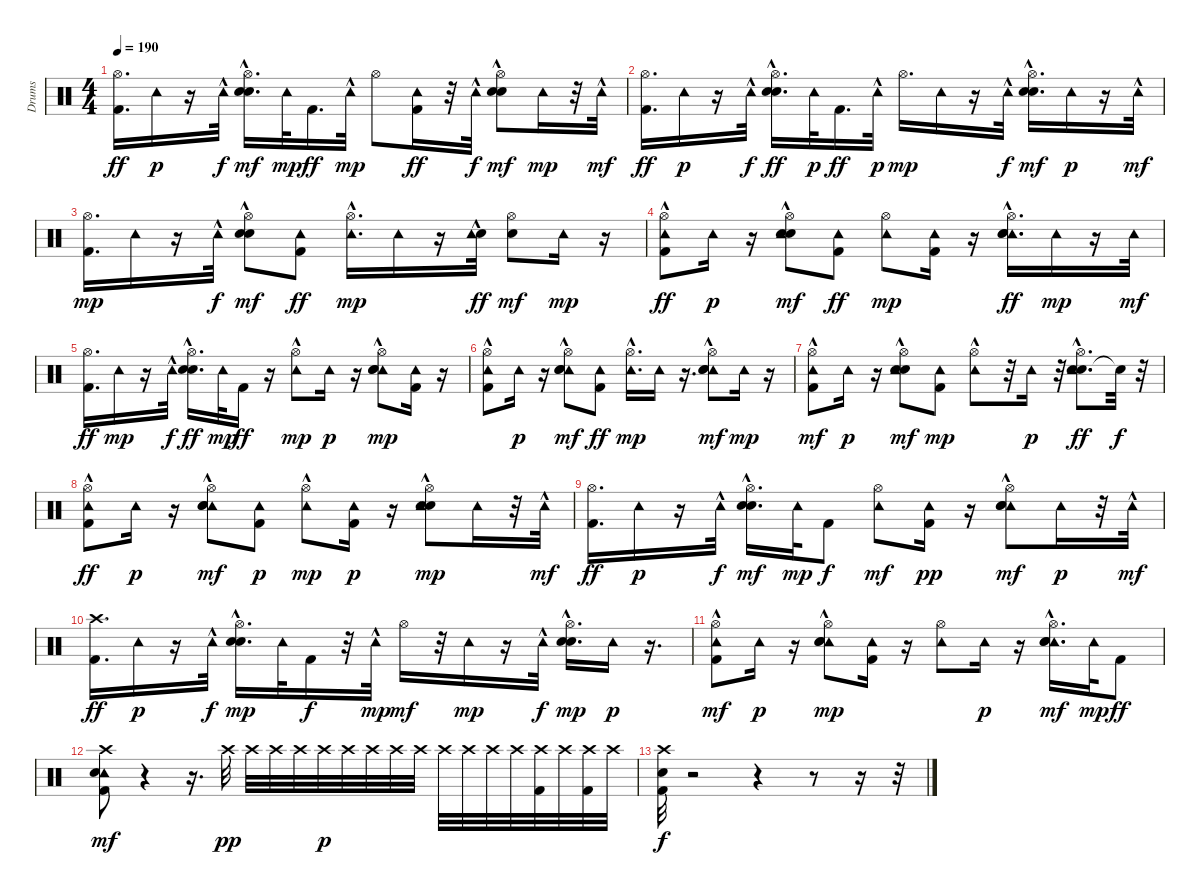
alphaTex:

\track ("Drums" "Drums") {instrument percussion}
\staff {score}
\articulation defaults
\ts (4 4)
\tempo 190
\clef neutral
\ks c
("Hi-Hat (open)" "Kick (hit) 2").16{d dy ff} "Tambourine (hit)".16{dy p} r.16 "Tambourine (hit)"{hac}.32{dy f} ("Hand Clap (hit)"{hac} "Snare (hit) 2" "Hi-Hat (open)").16{d dy mf} "Tambourine (hit)".32{dy mp} "Kick (hit) 2".16{d dy ff} "Tambourine (hit)"{hac}.32{dy mp} "Hi-Hat (open)".8 ("Tambourine (hit)" "Kick (hit) 2").16{dy ff} r.32 "Tambourine (hit)"{hac}.32{dy f} ("Hand Clap (hit)"{hac} "Snare (hit) 2" "Hi-Hat (open)").8{dy mf} "Tambourine (hit)".16{dy mp} r.32 "Tambourine (hit)"{hac}.32{dy mf} |
("Hi-Hat (open)" "Kick (hit) 2").16{d dy ff} "Tambourine (hit)".16{dy p} r.16 "Tambourine (hit)"{hac}.32{dy f} ("Hand Clap (hit)"{hac} "Hi-Hat (open)" "Snare (hit) 2").16{d dy ff} "Tambourine (hit)".32{dy p} "Kick (hit) 2".16{d dy ff} "Tambourine (hit)"{hac}.32{dy p} "Hi-Hat (open)".16{d dy mp} "Tambourine (hit)".16 r.16 "Tambourine (hit)"{hac}.32{dy f} ("Hand Clap (hit)"{hac} "Snare (hit) 2" "Hi-Hat (open)").16{d dy mf} "Tambourine (hit)".16{dy p} r.16 "Tambourine (hit)"{hac}.32{dy mf} |
("Kick (hit) 2" "Hi-Hat (open)").16{d dy mp} "Tambourine (hit)".16 r.16 "Tambourine (hit)"{hac}.32{dy f} ("Hand Clap (hit)"{hac} "Snare (hit) 2" "Hi-Hat (open)").8{dy mf} ("Tambourine (hit)" "Kick (hit) 2").8{dy ff} ("Tambourine (hit)"{hac} "Hi-Hat (open)").16{d dy mp} "Tambourine (hit)".16 r.16 ("Hand Clap (hit)"{hac} "Tambourine (hit)"{hac}).32{dy ff} ("Snare (hit) 2" "Hi-Hat (open)").8{dy mf} "Tambourine (hit)".16{dy mp} r.16 |
("Tambourine (hit)"{hac} "Hi-Hat (open)" "Kick (hit) 2").8{dy ff} "Tambourine (hit)".16{dy p} r.16 ("Hand Clap (hit)"{hac} "Hi-Hat (open)" "Tambourine (hit)"{hac} "Snare (hit) 2").8{dy mf} ("Tambourine (hit)" "Kick (hit) 2").8{dy ff} ("Tambourine (hit)" "Hi-Hat (open)").8{dy mp} ("Tambourine (hit)" "Kick (hit) 2").16 r.16 ("Tambourine (hit)"{hac} "Hand Clap (hit)"{hac} "Hi-Hat (open)" "Snare (hit) 2").16{d dy ff} "Tambourine (hit)".16{dy mp} r.16 "Tambourine (hit)".32{dy mf} |
("Hi-Hat (open)" "Kick (hit) 2").16{d dy ff} "Tambourine (hit)".16{dy mp} r.16 "Tambourine (hit)"{hac}.32{dy f} ("Hand Clap (hit)"{hac} "Hi-Hat (open)" "Snare (hit) 2").16{d dy ff} "Tambourine (hit)".32{dy mp} "Kick (hit) 2".16{dy ff} r.16 ("Tambourine (hit)"{hac} "Hi-Hat (open)").8{dy mp} "Tambourine (hit)".16{dy p} r.16 ("Tambourine (hit)"{hac} "Hand Clap (hit)"{hac} "Snare (hit) 2" "Hi-Hat (open)").8{dy mp} ("Kick (hit) 2" "Tambourine (hit)").16 r.16 |
("Tambourine (hit)"{hac} "Kick (hit) 2" "Hi-Hat (open)").8 "Tambourine (hit)".16{dy p} r.16 ("Tambourine (hit)"{hac} "Hand Clap (hit)"{hac} "Snare (hit) 2" "Hi-Hat (open)").8{dy mf} ("Tambourine (hit)" "Kick (hit) 2").8{dy ff} ("Tambourine (hit)"{hac} "Hi-Hat (open)").16{d dy mp} "Tambourine (hit)".16 r.16{d} ("Tambourine (hit)"{hac} "Hand Clap (hit)"{hac} "Snare (hit) 2" "Hi-Hat (open)").8{dy mf} "Tambourine (hit)".16{dy mp} r.16 |
("Tambourine (hit)"{hac} "Kick (hit) 2" "Hi-Hat (open)").8{dy mf} "Tambourine (hit)".16{dy p} r.16 ("Hand Clap (hit)"{hac} "Tambourine (hit)"{hac} "Snare (hit) 2" "Hi-Hat (open)").8{dy mf} ("Kick (hit) 2" "Tambourine (hit)").8{dy mp} ("Hi-Hat (open)" "Tambourine (hit)"{hac}).8 r.32 "Tambourine (hit)".16{dy p} r.32 ("Snare (hit) 2" "Hi-Hat (open)" "Hand Clap (hit)"{hac} "Tambourine (hit)"{hac}).8{d dy ff} "Snare (hit)"{t}.32{dy f} r.32 |
("Hi-Hat (open)" "Tambourine (hit)"{hac} "Kick (hit) 2").8{dy ff} "Tambourine (hit)".16{dy p} r.16 ("Tambourine (hit)"{hac} "Hand Clap (hit)"{hac} "Snare (hit) 2" "Hi-Hat (open)"{hac}).8{dy mf} ("Kick (hit) 2" "Tambourine (hit)").8{dy p} ("Tambourine (hit)"{hac} "Hi-Hat (open)").8{dy mp} ("Kick (hit) 2" "Tambourine (hit)").16{dy p} r.16 ("Hand Clap (hit)"{hac} "Snare (hit) 2" "Hi-Hat (open)" "Tambourine (hit)"{hac}).8{dy mp} "Tambourine (hit)".16 r.32 "Tambourine (hit)"{hac}.32{dy mf} |
("Hi-Hat (open)" "Kick (hit) 2").16{d dy ff} "Tambourine (hit)".16{dy p} r.16 "Tambourine (hit)"{hac}.32{dy f} ("Hand Clap (hit)"{hac} "Snare (hit) 2" "Hi-Hat (open)").16{d dy mf} "Tambourine (hit)".32{dy mp} "Kick (hit) 2".8{dy f} ("Tambourine (hit)" "Hi-Hat (open)").8{dy mf} ("Kick (hit) 2" "Tambourine (hit)").16{dy pp} r.16 ("Tambourine (hit)"{hac} "Snare (hit) 2" "Hand Clap (hit)"{hac} "Hi-Hat (open)").8{dy mf} "Tambourine (hit)".16{dy p} r.32 "Tambourine (hit)"{hac}.32{dy mf} |
("Kick (hit) 2" "Crash high (hit)").16{d dy ff} "Tambourine (hit)".16{dy p} r.16 "Tambourine (hit)"{hac}.32{dy f} ("Hand Clap (hit)"{hac} "Snare (hit) 2" "Hi-Hat (open)").16{d dy mp} "Tambourine (hit)".32 "Kick (hit) 2".16{dy f} r.32 "Tambourine (hit)"{hac}.32{dy mp} "Hi-Hat (open)".16{dy mf} r.32 "Tambourine (hit)".16{dy mp} r.16 "Tambourine (hit)"{hac}.32{dy f} ("Snare (hit) 2" "Hand Clap (hit)"{hac} "Hi-Hat (open)").16{d dy mp} "Tambourine (hit)".16{dy p} r.16{d} |
("Tambourine (hit)"{hac} "Kick (hit) 2" "Hi-Hat (open)").8{dy mf} "Tambourine (hit)".16{dy p} r.16 ("Tambourine (hit)"{hac} "Hand Clap (hit)"{hac} "Snare (hit) 2" "Hi-Hat (open)").8{dy mp} ("Kick (hit) 2" "Tambourine (hit)").16 r.16 ("Hi-Hat (open)" "Tambourine (hit)").8 "Tambourine (hit)".16{dy p} r.16 ("Tambourine (hit)"{hac} "Hand Clap (hit)"{hac} "Snare (hit) 2" "Hi-Hat (open)").16{d dy mf} "Tambourine (hit)".32{dy mp} "Kick (hit) 2".8{dy ff} |
("Tambourine (hit)" "Kick (hit) 2" "Snare (hit) 2" "Crash high (hit)").8{dy mf} r.4 r.16{d} "Crash high (hit)".32{dy pp} "Crash high (hit)".32 "Crash high (hit)".32 "Crash high (hit)".32 "Crash high (hit)".32{dy p} "Crash high (hit)".32 "Crash high (hit)".32 "Crash high (hit)".32 "Crash high (hit)".32 "Crash high (hit)".32 "Crash high (hit)".32 "Crash high (hit)".32 "Crash high (hit)".32 ("Kick (hit) 2" "Crash high (hit)").32 "Crash high (hit)".32 ("Kick (hit) 2" "Crash high (hit)").32 "Crash high (hit)".32 |
("Kick (hit) 2" "Snare (hit) 2" "Crash high (hit)").32{dy f} r.2 r.4 r.8 r.16 r.32
